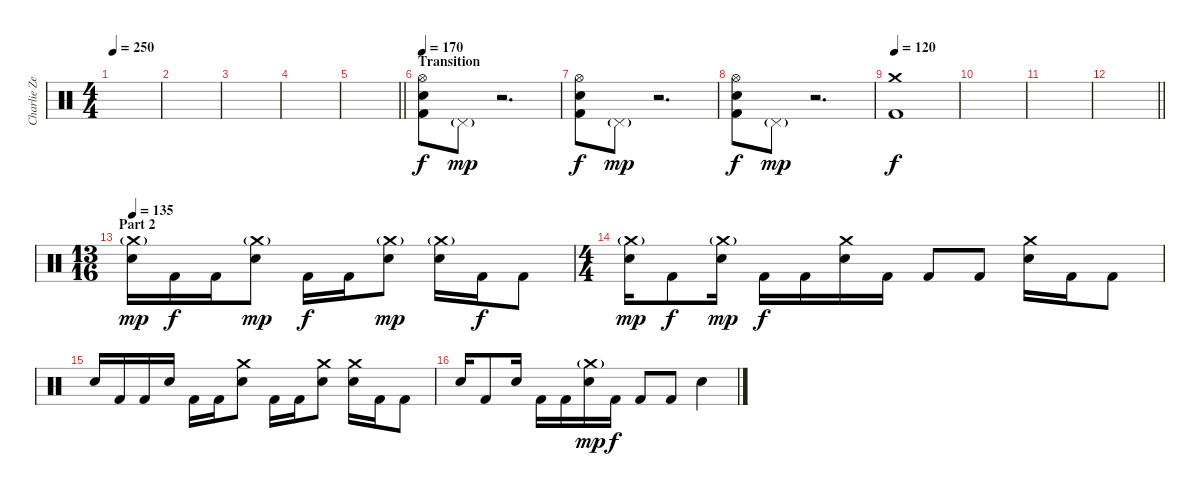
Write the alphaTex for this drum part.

\track ("Charlie Zeleny - Drums" "Charlie Ze") {instrument percussion}
\staff {score}
\articulation defaults
\ts (4 4)
\tempo 250
\clef neutral
\ks c
|
|
|
|
\barLineRight lightlight
|
\section ("" "Transition")
\tempo 170
("Hi-Hat (open)" "Electric Snare (hit)" "Kick (hit) 2").8 "Pedal Hi-Hat (hit)"{g}.8{dy mp} r.2{d} |
("Hi-Hat (open)" "Electric Snare (hit)" "Kick (hit) 2").8{dy f} "Pedal Hi-Hat (hit)"{g}.8{dy mp} r.2{d} |
("Hi-Hat (open)" "Electric Snare (hit)" "Kick (hit) 2").8{dy f} "Pedal Hi-Hat (hit)"{g}.8{dy mp} r.2{d} |
\tempo 120
("Crash medium (hit)" "Kick (hit) 2").1{dy f} |
|
|
\barLineRight lightlight
|
\ts (13 16)
\section ("" "Part 2")
\tempo 135
("Crash medium (hit)"{g} "Electric Snare (hit)").16{dy mp} "Kick (hit) 2".16{dy f} "Kick (hit) 2".16 ("Crash medium (hit)"{g} "Electric Snare (hit)").8{dy mp} "Kick (hit) 2".16{dy f} "Kick (hit) 2".16 ("Crash medium (hit)"{g} "Electric Snare (hit)").8{dy mp} ("Crash medium (hit)"{g} "Electric Snare (hit)").16 "Kick (hit) 2".16{dy f} "Kick (hit) 2".8 |
\ts (4 4)
("Crash medium (hit)"{g} "Electric Snare (hit)").16{dy mp} "Kick (hit) 2".8{dy f} ("Crash medium (hit)"{g} "Electric Snare (hit)").16{dy mp} "Kick (hit) 2".16{dy f} "Kick (hit) 2".16 ("Crash medium (hit)" "Electric Snare (hit)").16 "Kick (hit) 2".16 "Kick (hit) 2".8 "Kick (hit) 2".8 ("Crash medium (hit)" "Electric Snare (hit)").16 "Kick (hit) 2".16 "Kick (hit) 2".8 |
"Electric Snare (hit)".16 "Kick (hit) 2".16 "Kick (hit) 2".16 "Electric Snare (hit)".16 "Kick (hit) 2".16 "Kick (hit) 2".16 ("Crash medium (hit)" "Electric Snare (hit)").8 "Kick (hit) 2".16 "Kick (hit) 2".16 ("Crash medium (hit)" "Electric Snare (hit)").8 ("Crash medium (hit)" "Electric Snare (hit)").16 "Kick (hit) 2".16 "Kick (hit) 2".8 |
"Electric Snare (hit)".16 "Kick (hit) 2".8 "Electric Snare (hit)".16 "Kick (hit) 2".16 "Kick (hit) 2".16 ("Crash medium (hit)"{g} "Electric Snare (hit)").16{dy mp} "Kick (hit) 2".16{dy f} "Kick (hit) 2".8 "Kick (hit) 2".8 "Electric Snare (hit)".4
